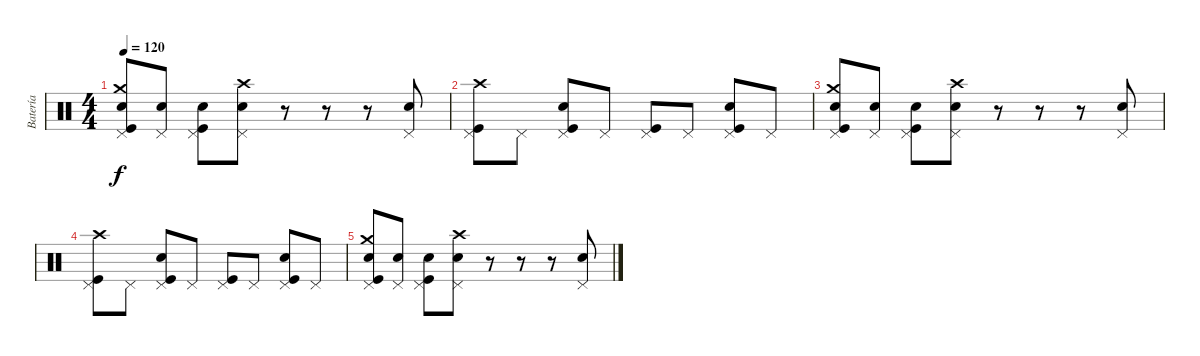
\track ("Batería" "Batería") {instrument percussion}
\staff {score}
\articulation defaults
\ts (4 4)
\tempo 120
\clef neutral
\ks c
("Pedal Hi-Hat (hit)" "Crash medium (hit)" "Snare (hit) 2" "Kick (hit)").8{dy f} ("Pedal Hi-Hat (hit)" "Snare (hit) 2").8 ("Pedal Hi-Hat (hit)" "Snare (hit) 2" "Kick (hit)").8 ("Pedal Hi-Hat (hit)" "Crash high (hit)" "Snare (hit) 2").8 r.8 r.8 r.8 ("Pedal Hi-Hat (hit)" "Snare (hit) 2").8 |
("Pedal Hi-Hat (hit)" "Crash high (hit)" "Kick (hit)").8 "Pedal Hi-Hat (hit)".8 ("Pedal Hi-Hat (hit)" "Snare (hit) 2" "Kick (hit)").8 "Pedal Hi-Hat (hit)".8 ("Pedal Hi-Hat (hit)" "Kick (hit)").8 "Pedal Hi-Hat (hit)".8 ("Pedal Hi-Hat (hit)" "Snare (hit) 2" "Kick (hit)").8 "Pedal Hi-Hat (hit)".8 |
("Pedal Hi-Hat (hit)" "Crash medium (hit)" "Snare (hit) 2" "Kick (hit)").8 ("Pedal Hi-Hat (hit)" "Snare (hit) 2").8 ("Pedal Hi-Hat (hit)" "Snare (hit) 2" "Kick (hit)").8 ("Pedal Hi-Hat (hit)" "Crash high (hit)" "Snare (hit) 2").8 r.8 r.8 r.8 ("Pedal Hi-Hat (hit)" "Snare (hit) 2").8 |
("Pedal Hi-Hat (hit)" "Crash high (hit)" "Kick (hit)").8 "Pedal Hi-Hat (hit)".8 ("Pedal Hi-Hat (hit)" "Snare (hit) 2" "Kick (hit)").8 "Pedal Hi-Hat (hit)".8 ("Pedal Hi-Hat (hit)" "Kick (hit)").8 "Pedal Hi-Hat (hit)".8 ("Pedal Hi-Hat (hit)" "Snare (hit) 2" "Kick (hit)").8 "Pedal Hi-Hat (hit)".8 |
("Pedal Hi-Hat (hit)" "Crash medium (hit)" "Snare (hit) 2" "Kick (hit)").8 ("Pedal Hi-Hat (hit)" "Snare (hit) 2").8 ("Pedal Hi-Hat (hit)" "Snare (hit) 2" "Kick (hit)").8 ("Pedal Hi-Hat (hit)" "Crash high (hit)" "Snare (hit) 2").8 r.8 r.8 r.8 ("Pedal Hi-Hat (hit)" "Snare (hit) 2").8
